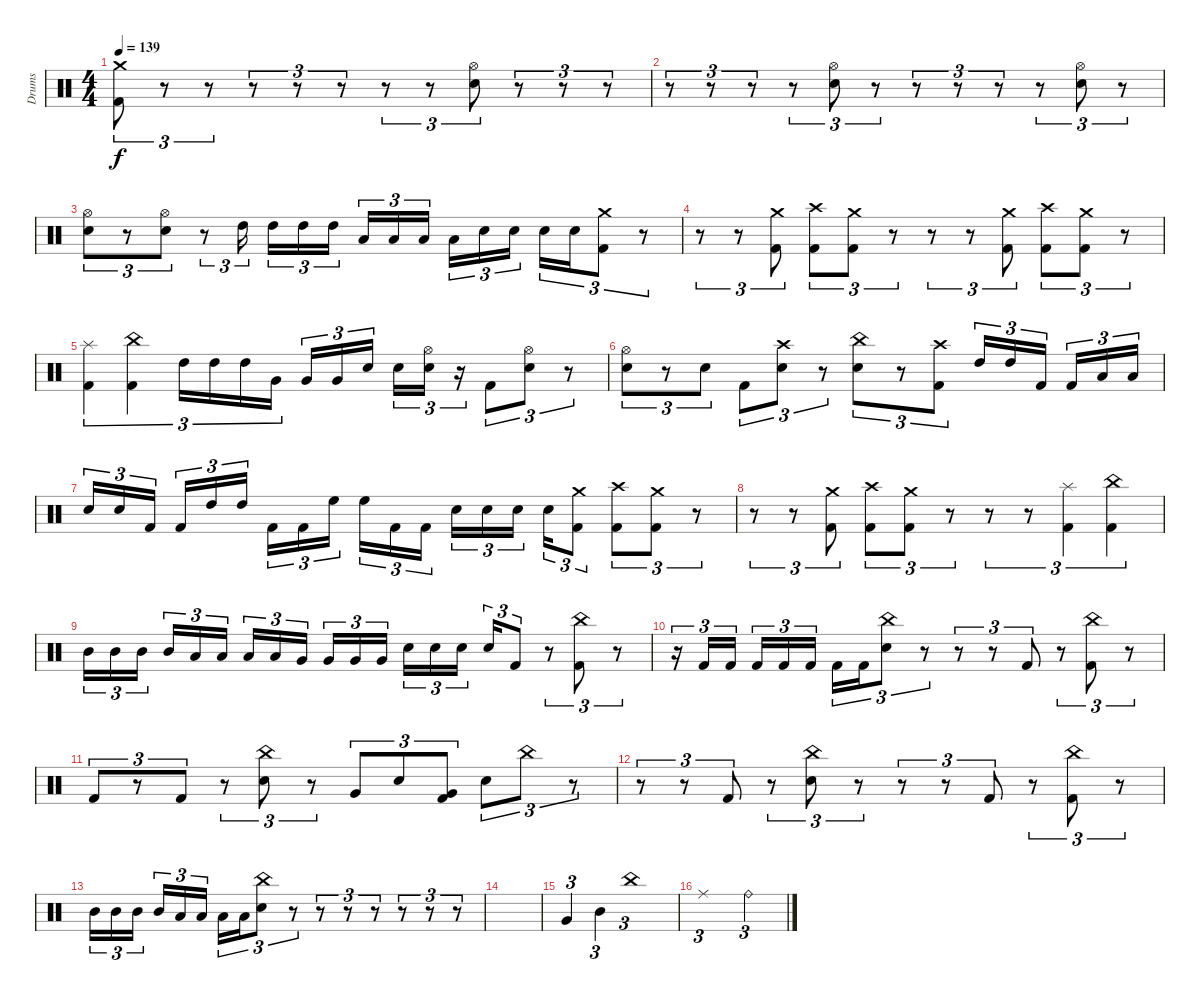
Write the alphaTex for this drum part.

\track ("Drums" "Drums") {instrument percussion}
\staff {score}
\articulation defaults
\ts (4 4)
\tempo 139
\clef neutral
\ks c
("Kick (hit) 2" "Crash medium (hit)").8{tu (3 2) dy f} r.8{tu (3 2)} r.8{tu (3 2)} r.8{tu (3 2)} r.8{tu (3 2)} r.8{tu (3 2)} r.8{tu (3 2)} r.8{tu (3 2)} ("Snare (hit) 2" "Hi-Hat (open)").8{tu (3 2)} r.8{tu (3 2)} r.8{tu (3 2)} r.8{tu (3 2)} |
r.8{tu (3 2)} r.8{tu (3 2)} r.8{tu (3 2)} r.8{tu (3 2)} ("Snare (hit) 2" "Hi-Hat (open)").8{tu (3 2)} r.8{tu (3 2)} r.8{tu (3 2)} r.8{tu (3 2)} r.8{tu (3 2)} r.8{tu (3 2)} ("Snare (hit) 2" "Hi-Hat (open)").8{tu (3 2)} r.8{tu (3 2)} |
("Snare (hit) 2" "Hi-Hat (open)").8{tu (3 2)} r.8{tu (3 2)} ("Snare (hit) 2" "Hi-Hat (open)").8{tu (3 2)} r.8{tu (3 2)} "High Tom (hit)".16{tu (3 2) beam splitsecondary} "High Tom (hit)".16{tu (3 2)} "High Tom (hit)".16{tu (3 2)} "High Tom (hit)".16{tu (3 2)} "Low Floor Tom (hit)".16{tu (3 2)} "Low Floor Tom (hit)".16{tu (3 2)} "Low Floor Tom (hit)".16{tu (3 2) beam splitsecondary} "Low Floor Tom (hit)".16{tu (3 2)} "Snare (hit) 2".16{tu (3 2)} "Snare (hit) 2".16{tu (3 2)} "Snare (hit) 2".16{tu (3 2)} "Snare (hit) 2".16{tu (3 2)} ("Kick (hit) 2" "Crash medium (hit)").8{tu (3 2)} r.8{tu (3 2)} |
r.8{tu (3 2)} r.8{tu (3 2)} ("Kick (hit) 2" "Crash medium (hit)").8{tu (3 2)} ("Kick (hit) 2" "Crash high (hit)").8{tu (3 2)} ("Kick (hit) 2" "Crash medium (hit)").8{tu (3 2)} r.8{tu (3 2)} r.8{tu (3 2)} r.8{tu (3 2)} ("Kick (hit) 2" "Crash medium (hit)").8{tu (3 2)} ("Kick (hit) 2" "Crash high (hit)").8{tu (3 2)} ("Kick (hit) 2" "Crash medium (hit)").8{tu (3 2)} r.8{tu (3 2)} |
("Kick (hit) 2" "Splash (hit)").4{tu (3 2)} ("Kick (hit) 2" "China (hit)").4{tu (3 2)} "High Tom (hit)".16{tu (3 2)} "High Tom (hit)".16{tu (3 2)} "High Tom (hit)".16{tu (3 2)} "Very Low Tom (hit)".16{tu (3 2)} "Very Low Tom (hit)".16{tu (3 2)} "Very Low Tom (hit)".16{tu (3 2)} "Snare (hit) 2".16{tu (3 2) beam splitsecondary} "Snare (hit) 2".16{tu (3 2)} ("Snare (hit) 2" "Hi-Hat (open)").16{tu (3 2)} r.16{tu (3 2)} "Kick (hit) 2".8{tu (3 2)} ("Snare (hit) 2" "Hi-Hat (open)").8{tu (3 2)} r.8{tu (3 2)} |
("Snare (hit) 2" "Hi-Hat (open)").8{tu (3 2)} r.8{tu (3 2)} "Snare (hit) 2".8{tu (3 2)} "Kick (hit) 2".8{tu (3 2)} ("Snare (hit) 2" "Crash high (hit)").8{tu (3 2)} r.8{tu (3 2)} ("Snare (hit) 2" "China (hit)").8{tu (3 2)} r.8{tu (3 2)} ("Kick (hit) 2" "Crash high (hit)").8{tu (3 2)} "High Tom (hit)".16{tu (3 2)} "High Tom (hit)".16{tu (3 2)} "Kick (hit) 2".16{tu (3 2) beam splitsecondary} "Kick (hit) 2".16{tu (3 2)} "Low Tom (hit)".16{tu (3 2)} "Low Tom (hit)".16{tu (3 2)} |
"Snare (hit) 2".16{tu (3 2)} "Snare (hit) 2".16{tu (3 2)} "Kick (hit) 2".16{tu (3 2) beam splitsecondary} "Kick (hit) 2".16{tu (3 2)} "High Tom (hit)".16{tu (3 2)} "High Tom (hit)".16{tu (3 2)} "Kick (hit) 2".16{tu (3 2)} "Kick (hit) 2".16{tu (3 2)} "High Floor Tom (hit)".16{tu (3 2) beam splitsecondary} "High Floor Tom (hit)".16{tu (3 2)} "Kick (hit) 2".16{tu (3 2)} "Kick (hit) 2".16{tu (3 2)} "Snare (hit) 2".16{tu (3 2)} "Snare (hit) 2".16{tu (3 2)} "Snare (hit) 2".16{tu (3 2) beam splitsecondary} "Snare (hit) 2".16{tu (3 2)} ("Kick (hit) 2" "Crash medium (hit)").8{tu (3 2)} ("Kick (hit) 2" "Crash high (hit)").8{tu (3 2)} ("Kick (hit) 2" "Crash medium (hit)").8{tu (3 2)} r.8{tu (3 2)} |
r.8{tu (3 2)} r.8{tu (3 2)} ("Kick (hit) 2" "Crash medium (hit)").8{tu (3 2)} ("Kick (hit) 2" "Crash high (hit)").8{tu (3 2)} ("Kick (hit) 2" "Crash medium (hit)").8{tu (3 2)} r.8{tu (3 2)} r.8{tu (3 2)} r.8{tu (3 2)} ("Kick (hit) 2" "Splash (hit)").4{tu (3 2)} ("Kick (hit) 2" "China (hit)").4{tu (3 2)} |
"Mid Tom (hit)".16{tu (3 2)} "Mid Tom (hit)".16{tu (3 2)} "Mid Tom (hit)".16{tu (3 2) beam splitsecondary} "Mid Tom (hit)".16{tu (3 2)} "Low Tom (hit)".16{tu (3 2)} "Low Tom (hit)".16{tu (3 2)} "Low Tom (hit)".16{tu (3 2)} "Low Tom (hit)".16{tu (3 2)} "Very Low Tom (hit)".16{tu (3 2) beam splitsecondary} "Very Low Tom (hit)".16{tu (3 2)} "Very Low Tom (hit)".16{tu (3 2)} "Very Low Tom (hit)".16{tu (3 2)} "Snare (hit) 2".16{tu (3 2)} "Snare (hit) 2".16{tu (3 2)} "Snare (hit) 2".16{tu (3 2) beam splitsecondary} "Snare (hit) 2".16{tu (3 2)} "Kick (hit) 2".8{tu (3 2)} r.8{tu (3 2)} ("Kick (hit) 2" "China (hit)").8{tu (3 2)} r.8{tu (3 2)} |
r.16{tu (3 2)} "Kick (hit) 2".16{tu (3 2)} "Kick (hit) 2".16{tu (3 2) beam splitsecondary} "Kick (hit) 2".16{tu (3 2)} "Kick (hit) 2".16{tu (3 2)} "Kick (hit) 2".16{tu (3 2)} "Kick (hit) 2".16{tu (3 2)} "Kick (hit) 2".16{tu (3 2)} ("China (hit)" "Snare (hit) 2").8{tu (3 2)} r.8{tu (3 2)} r.8{tu (3 2)} r.8{tu (3 2)} "Kick (hit) 2".8{tu (3 2)} r.8{tu (3 2)} ("Kick (hit) 2" "China (hit)").8{tu (3 2)} r.8{tu (3 2)} |
"Kick (hit) 2".8{tu (3 2)} r.8{tu (3 2)} "Kick (hit) 2".8{tu (3 2)} r.8{tu (3 2)} ("China (hit)" "Snare (hit) 2").8{tu (3 2)} r.8{tu (3 2)} "Very Low Tom (hit)".8{tu (3 2)} "Snare (hit) 2".8{tu (3 2)} ("Kick (hit) 2" "Very Low Tom (hit)").8{tu (3 2)} "Snare (hit) 2".8{tu (3 2)} "China (hit)".8{tu (3 2)} r.8{tu (3 2)} |
r.8{tu (3 2)} r.8{tu (3 2)} "Kick (hit) 2".8{tu (3 2)} r.8{tu (3 2)} ("China (hit)" "Snare (hit) 2").8{tu (3 2)} r.8{tu (3 2)} r.8{tu (3 2)} r.8{tu (3 2)} "Kick (hit) 2".8{tu (3 2)} r.8{tu (3 2)} ("Kick (hit) 2" "China (hit)").8{tu (3 2)} r.8{tu (3 2)} |
"Mid Tom (hit)".16{tu (3 2)} "Mid Tom (hit)".16{tu (3 2)} "Mid Tom (hit)".16{tu (3 2) beam splitsecondary} "Mid Tom (hit)".16{tu (3 2)} "Low Tom (hit)".16{tu (3 2)} "Low Tom (hit)".16{tu (3 2)} "Low Tom (hit)".16{tu (3 2)} "Low Tom (hit)".16{tu (3 2)} ("China (hit)" "Snare (hit) 2").8{tu (3 2)} r.8{tu (3 2)} r.8{tu (3 2)} r.8{tu (3 2)} r.8{tu (3 2)} r.8{tu (3 2)} r.8{tu (3 2)} r.8{tu (3 2)} |
|
"Very Low Tom (hit)".4{tu (3 2)} "Mid Tom (hit)".4{tu (3 2)} "China (hit)".1{tu (3 2)} |
"Ride (middle)".1{tu (3 2)} "Ride (bell)".2{tu (3 2)}
